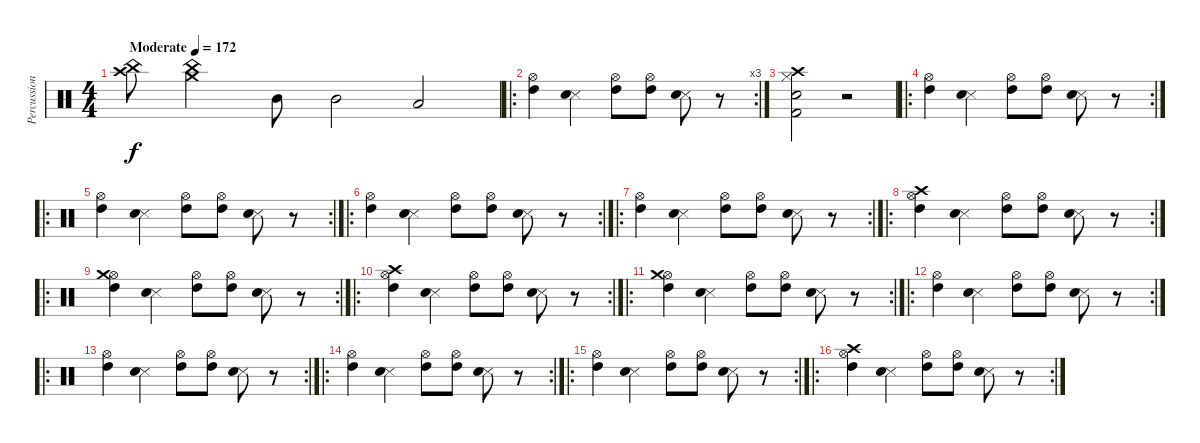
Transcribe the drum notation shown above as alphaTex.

\track ("Percussion" "Percussion") {instrument percussion}
\staff {score}
\articulation defaults
\ts (4 4)
\tempo (172 "Moderate")
\clef neutral
\ks c
("Crash high (hit)" "China (hit)").8{dy f} ("Crash medium (hit)" "China (hit)").2 "Mid Tom (hit)".8 "Mid Tom (hit)".2 "Low Tom (hit)".2 |
\ro
\rc 3
("Hi-Hat (open)" "High Tom (hit)").4 ("Snare (side stick) 3" "Electric Snare (hit)").4 ("Hi-Hat (open)" "High Tom (hit)").8 ("Hi-Hat (open)" "High Tom (hit)").8 ("Snare (side stick) 3" "Electric Snare (hit)").8 r.8 |
("Kick (hit) 2" "Electric Snare (hit)" "Crash high (hit)" "Hi-Hat (closed)").2 r.2 |
\ro
\rc 2
("Hi-Hat (open)" "High Tom (hit)").4 ("Snare (side stick) 3" "Electric Snare (hit)").4 ("Hi-Hat (open)" "High Tom (hit)").8 ("Hi-Hat (open)" "High Tom (hit)").8 ("Snare (side stick) 3" "Electric Snare (hit)").8 r.8 |
\ro
\rc 2
("Hi-Hat (open)" "High Tom (hit)").4 ("Snare (side stick) 3" "Electric Snare (hit)").4 ("Hi-Hat (open)" "High Tom (hit)").8 ("Hi-Hat (open)" "High Tom (hit)").8 ("Snare (side stick) 3" "Electric Snare (hit)").8 r.8 |
\ro
\rc 2
("Hi-Hat (open)" "High Tom (hit)").4 ("Snare (side stick) 3" "Electric Snare (hit)").4 ("Hi-Hat (open)" "High Tom (hit)").8 ("Hi-Hat (open)" "High Tom (hit)").8 ("Snare (side stick) 3" "Electric Snare (hit)").8 r.8 |
\ro
\rc 2
("Hi-Hat (open)" "High Tom (hit)").4 ("Snare (side stick) 3" "Electric Snare (hit)").4 ("Hi-Hat (open)" "High Tom (hit)").8 ("Hi-Hat (open)" "High Tom (hit)").8 ("Snare (side stick) 3" "Electric Snare (hit)").8 r.8 |
\ro
\rc 2
("Hi-Hat (open)" "High Tom (hit)" "Crash high (hit)").4 ("Snare (side stick) 3" "Electric Snare (hit)").4 ("Hi-Hat (open)" "High Tom (hit)").8 ("Hi-Hat (open)" "High Tom (hit)").8 ("Snare (side stick) 3" "Electric Snare (hit)").8 r.8 |
\ro
\rc 2
("Hi-Hat (open)" "High Tom (hit)" "Crash medium (hit)").4 ("Snare (side stick) 3" "Electric Snare (hit)").4 ("Hi-Hat (open)" "High Tom (hit)").8 ("Hi-Hat (open)" "High Tom (hit)").8 ("Snare (side stick) 3" "Electric Snare (hit)").8 r.8 |
\ro
\rc 2
("Hi-Hat (open)" "High Tom (hit)" "Crash high (hit)").4 ("Snare (side stick) 3" "Electric Snare (hit)").4 ("Hi-Hat (open)" "High Tom (hit)").8 ("Hi-Hat (open)" "High Tom (hit)").8 ("Snare (side stick) 3" "Electric Snare (hit)").8 r.8 |
\ro
\rc 2
("Hi-Hat (open)" "High Tom (hit)" "Crash medium (hit)").4 ("Snare (side stick) 3" "Electric Snare (hit)").4 ("Hi-Hat (open)" "High Tom (hit)").8 ("Hi-Hat (open)" "High Tom (hit)").8 ("Snare (side stick) 3" "Electric Snare (hit)").8 r.8 |
\ro
\rc 2
("Hi-Hat (open)" "High Tom (hit)").4 ("Snare (side stick) 3" "Electric Snare (hit)").4 ("Hi-Hat (open)" "High Tom (hit)").8 ("Hi-Hat (open)" "High Tom (hit)").8 ("Snare (side stick) 3" "Electric Snare (hit)").8 r.8 |
\ro
\rc 2
("Hi-Hat (open)" "High Tom (hit)").4 ("Snare (side stick) 3" "Electric Snare (hit)").4 ("Hi-Hat (open)" "High Tom (hit)").8 ("Hi-Hat (open)" "High Tom (hit)").8 ("Snare (side stick) 3" "Electric Snare (hit)").8 r.8 |
\ro
\rc 2
("Hi-Hat (open)" "High Tom (hit)").4 ("Snare (side stick) 3" "Electric Snare (hit)").4 ("Hi-Hat (open)" "High Tom (hit)").8 ("Hi-Hat (open)" "High Tom (hit)").8 ("Snare (side stick) 3" "Electric Snare (hit)").8 r.8 |
\ro
\rc 2
("Hi-Hat (open)" "High Tom (hit)").4 ("Snare (side stick) 3" "Electric Snare (hit)").4 ("Hi-Hat (open)" "High Tom (hit)").8 ("Hi-Hat (open)" "High Tom (hit)").8 ("Snare (side stick) 3" "Electric Snare (hit)").8 r.8 |
\ro
\rc 2
("Hi-Hat (open)" "High Tom (hit)" "Crash high (hit)").4 ("Snare (side stick) 3" "Electric Snare (hit)").4 ("Hi-Hat (open)" "High Tom (hit)").8 ("Hi-Hat (open)" "High Tom (hit)").8 ("Snare (side stick) 3" "Electric Snare (hit)").8 r.8
